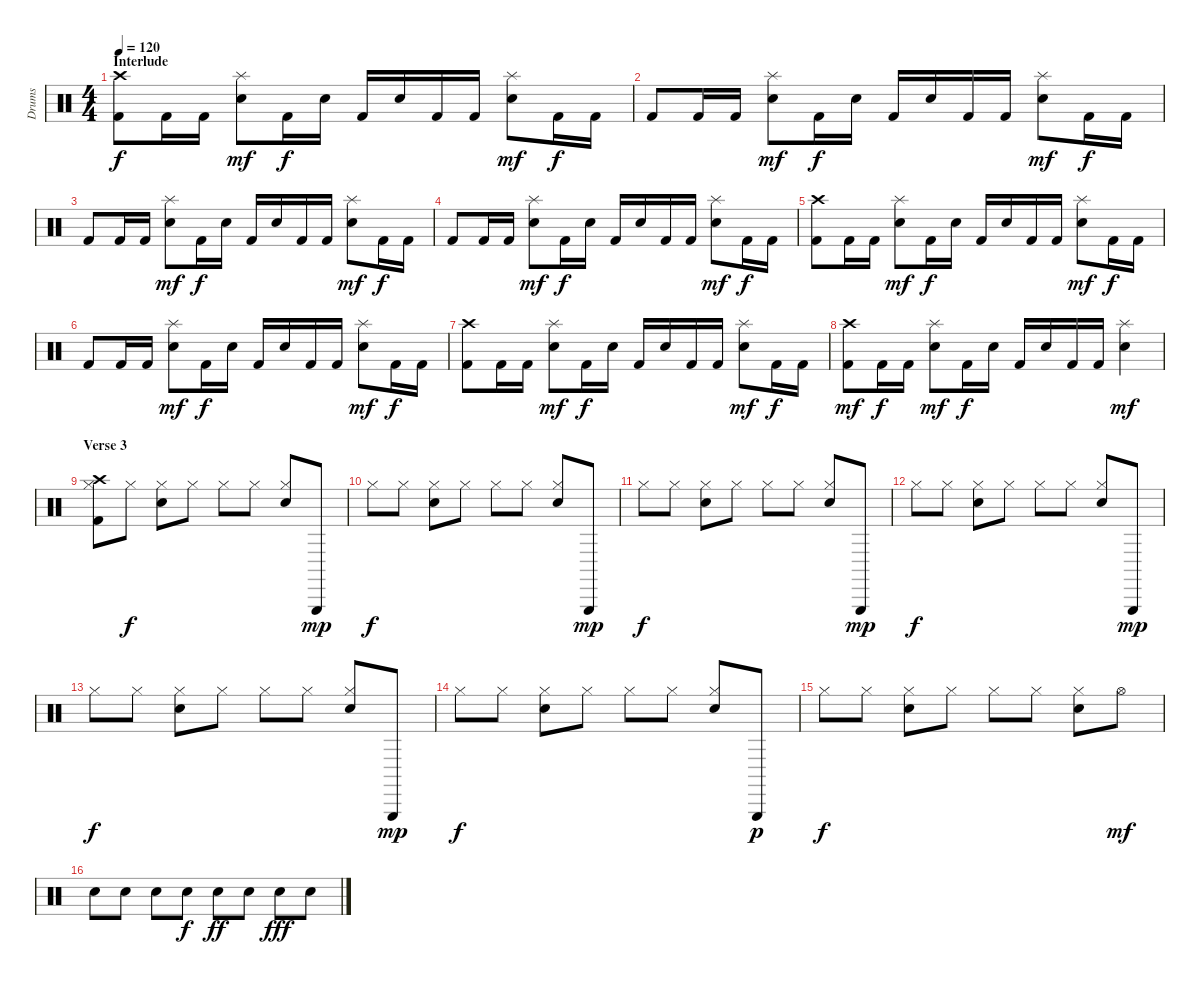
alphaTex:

\track ("Drums" "Drums") {instrument percussion}
\staff {score}
\articulation defaults
\ts (4 4)
\section ("" "Interlude")
\tempo 120
\clef neutral
\ks c
("Kick (hit) 2" "Crash high (hit)").8{dy f} "Kick (hit) 2".16 "Kick (hit) 2".16 ("Electric Snare (hit)" "Splash (hit)").8{dy mf} "Kick (hit) 2".16{dy f} "Electric Snare (hit)".16 "Kick (hit) 2".16 "Electric Snare (hit)".16 "Kick (hit) 2".16 "Kick (hit) 2".16 ("Electric Snare (hit)" "Splash (hit)").8{dy mf} "Kick (hit) 2".16{dy f} "Kick (hit) 2".16 |
"Kick (hit) 2".8 "Kick (hit) 2".16 "Kick (hit) 2".16 ("Electric Snare (hit)" "Splash (hit)").8{dy mf} "Kick (hit) 2".16{dy f} "Electric Snare (hit)".16 "Kick (hit) 2".16 "Electric Snare (hit)".16 "Kick (hit) 2".16 "Kick (hit) 2".16 ("Electric Snare (hit)" "Splash (hit)").8{dy mf} "Kick (hit) 2".16{dy f} "Kick (hit) 2".16 |
"Kick (hit) 2".8 "Kick (hit) 2".16 "Kick (hit) 2".16 ("Electric Snare (hit)" "Splash (hit)").8{dy mf} "Kick (hit) 2".16{dy f} "Electric Snare (hit)".16 "Kick (hit) 2".16 "Electric Snare (hit)".16 "Kick (hit) 2".16 "Kick (hit) 2".16 ("Electric Snare (hit)" "Splash (hit)").8{dy mf} "Kick (hit) 2".16{dy f} "Kick (hit) 2".16 |
"Kick (hit) 2".8 "Kick (hit) 2".16 "Kick (hit) 2".16 ("Electric Snare (hit)" "Splash (hit)").8{dy mf} "Kick (hit) 2".16{dy f} "Electric Snare (hit)".16 "Kick (hit) 2".16 "Electric Snare (hit)".16 "Kick (hit) 2".16 "Kick (hit) 2".16 ("Electric Snare (hit)" "Splash (hit)").8{dy mf} "Kick (hit) 2".16{dy f} "Kick (hit) 2".16 |
("Kick (hit) 2" "Crash high (hit)").8 "Kick (hit) 2".16 "Kick (hit) 2".16 ("Electric Snare (hit)" "Splash (hit)").8{dy mf} "Kick (hit) 2".16{dy f} "Electric Snare (hit)".16 "Kick (hit) 2".16 "Electric Snare (hit)".16 "Kick (hit) 2".16 "Kick (hit) 2".16 ("Electric Snare (hit)" "Splash (hit)").8{dy mf} "Kick (hit) 2".16{dy f} "Kick (hit) 2".16 |
"Kick (hit) 2".8 "Kick (hit) 2".16 "Kick (hit) 2".16 ("Electric Snare (hit)" "Splash (hit)").8{dy mf} "Kick (hit) 2".16{dy f} "Electric Snare (hit)".16 "Kick (hit) 2".16 "Electric Snare (hit)".16 "Kick (hit) 2".16 "Kick (hit) 2".16 ("Electric Snare (hit)" "Splash (hit)").8{dy mf} "Kick (hit) 2".16{dy f} "Kick (hit) 2".16 |
("Kick (hit) 2" "Crash high (hit)").8 "Kick (hit) 2".16 "Kick (hit) 2".16 ("Electric Snare (hit)" "Splash (hit)").8{dy mf} "Kick (hit) 2".16{dy f} "Electric Snare (hit)".16 "Kick (hit) 2".16 "Electric Snare (hit)".16 "Kick (hit) 2".16 "Kick (hit) 2".16 ("Electric Snare (hit)" "Splash (hit)").8{dy mf} "Kick (hit) 2".16{dy f} "Kick (hit) 2".16 |
("Kick (hit) 2" "Crash high (hit)").8{dy mf} "Kick (hit) 2".16{dy f} "Kick (hit) 2".16 ("Electric Snare (hit)" "Splash (hit)").8{dy mf} "Kick (hit) 2".16{dy f} "Electric Snare (hit)".16 "Kick (hit) 2".16 "Electric Snare (hit)".16 "Kick (hit) 2".16 "Kick (hit) 2".16 ("Electric Snare (hit)" "Splash (hit)").4{dy mf} |
\section ("" "Verse 3")
("Kick (hit) 2" "Crash high (hit)" "Hi-Hat (closed)").8 "Hi-Hat (closed)".8{dy f} ("Electric Snare (hit)" "Hi-Hat (closed)").8 "Hi-Hat (closed)".8 "Hi-Hat (closed)".8 "Hi-Hat (closed)".8 ("Electric Snare (hit)" "Hi-Hat (closed)").8 "Triangle (hit)".8{dy mp} |
"Hi-Hat (closed)".8{dy f} "Hi-Hat (closed)".8 ("Electric Snare (hit)" "Hi-Hat (closed)").8 "Hi-Hat (closed)".8 "Hi-Hat (closed)".8 "Hi-Hat (closed)".8 ("Electric Snare (hit)" "Hi-Hat (closed)").8 "Triangle (hit)".8{dy mp} |
"Hi-Hat (closed)".8{dy f} "Hi-Hat (closed)".8 ("Electric Snare (hit)" "Hi-Hat (closed)").8 "Hi-Hat (closed)".8 "Hi-Hat (closed)".8 "Hi-Hat (closed)".8 ("Electric Snare (hit)" "Hi-Hat (closed)").8 "Triangle (hit)".8{dy mp} |
"Hi-Hat (closed)".8{dy f} "Hi-Hat (closed)".8 ("Electric Snare (hit)" "Hi-Hat (closed)").8 "Hi-Hat (closed)".8 "Hi-Hat (closed)".8 "Hi-Hat (closed)".8 ("Electric Snare (hit)" "Hi-Hat (closed)").8 "Triangle (hit)".8{dy mp} |
"Hi-Hat (closed)".8{dy f} "Hi-Hat (closed)".8 ("Electric Snare (hit)" "Hi-Hat (closed)").8 "Hi-Hat (closed)".8 "Hi-Hat (closed)".8 "Hi-Hat (closed)".8 ("Electric Snare (hit)" "Hi-Hat (closed)").8 "Triangle (hit)".8{dy mp} |
"Hi-Hat (closed)".8{dy f} "Hi-Hat (closed)".8 ("Electric Snare (hit)" "Hi-Hat (closed)").8 "Hi-Hat (closed)".8 "Hi-Hat (closed)".8 "Hi-Hat (closed)".8 ("Electric Snare (hit)" "Hi-Hat (closed)").8 "Triangle (hit)".8{dy p} |
"Hi-Hat (closed)".8{dy f} "Hi-Hat (closed)".8 ("Electric Snare (hit)" "Hi-Hat (closed)").8 "Hi-Hat (closed)".8 "Hi-Hat (closed)".8 "Hi-Hat (closed)".8 ("Electric Snare (hit)" "Hi-Hat (closed)").8 "Hi-Hat (open)".8{dy mf} |
"Electric Snare (hit)".8 "Electric Snare (hit)".8 "Electric Snare (hit)".8 "Electric Snare (hit)".8{dy f} "Electric Snare (hit)".8{dy ff} "Electric Snare (hit)".8 "Electric Snare (hit)".8{dy fff} "Electric Snare (hit)".8
